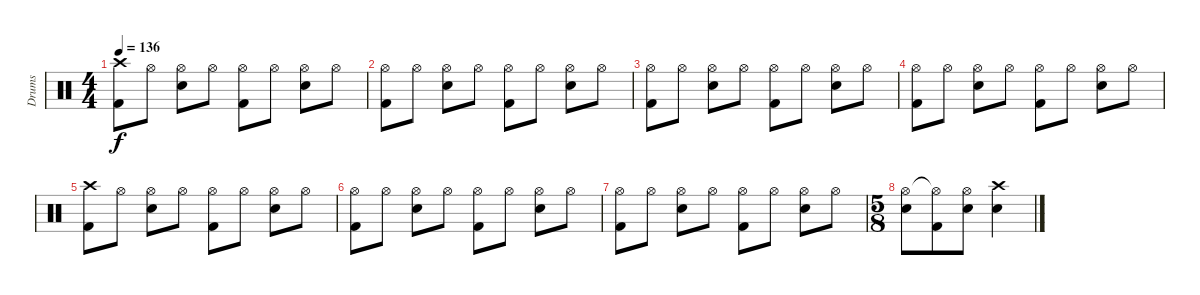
\track ("Drums" "Drums") {instrument percussion}
\staff {score}
\articulation defaults
\ts (4 4)
\tempo 136
\clef neutral
\ks c
("Crash high (hit)" "Kick (hit) 2").8{dy f} "Hi-Hat (open)".8 ("Hi-Hat (open)" "Snare (hit) 2").8 "Hi-Hat (open)".8 ("Hi-Hat (open)" "Kick (hit) 2").8 "Hi-Hat (open)".8 ("Hi-Hat (open)" "Snare (hit) 2").8 "Hi-Hat (open)".8 |
("Hi-Hat (open)" "Kick (hit) 2").8 "Hi-Hat (open)".8 ("Hi-Hat (open)" "Snare (hit) 2").8 "Hi-Hat (open)".8 ("Hi-Hat (open)" "Kick (hit) 2").8 "Hi-Hat (open)".8 ("Hi-Hat (open)" "Snare (hit) 2").8 "Hi-Hat (open)".8 |
("Hi-Hat (open)" "Kick (hit) 2").8 "Hi-Hat (open)".8 ("Hi-Hat (open)" "Snare (hit) 2").8 "Hi-Hat (open)".8 ("Hi-Hat (open)" "Kick (hit) 2").8 "Hi-Hat (open)".8 ("Hi-Hat (open)" "Snare (hit) 2").8 "Hi-Hat (open)".8 |
("Hi-Hat (open)" "Kick (hit) 2").8 "Hi-Hat (open)".8 ("Hi-Hat (open)" "Snare (hit) 2").8 "Hi-Hat (open)".8 ("Hi-Hat (open)" "Kick (hit) 2").8 "Hi-Hat (open)".8 ("Hi-Hat (open)" "Snare (hit) 2").8 "Hi-Hat (open)".8 |
("Crash high (hit)" "Kick (hit) 2").8 "Hi-Hat (open)".8 ("Hi-Hat (open)" "Snare (hit) 2").8 "Hi-Hat (open)".8 ("Hi-Hat (open)" "Kick (hit) 2").8 "Hi-Hat (open)".8 ("Hi-Hat (open)" "Snare (hit) 2").8 "Hi-Hat (open)".8 |
("Hi-Hat (open)" "Kick (hit) 2").8 "Hi-Hat (open)".8 ("Hi-Hat (open)" "Snare (hit) 2").8 "Hi-Hat (open)".8 ("Hi-Hat (open)" "Kick (hit) 2").8 "Hi-Hat (open)".8 ("Hi-Hat (open)" "Snare (hit) 2").8 "Hi-Hat (open)".8 |
("Hi-Hat (open)" "Kick (hit) 2").8 "Hi-Hat (open)".8 ("Hi-Hat (open)" "Snare (hit) 2").8 "Hi-Hat (open)".8 ("Hi-Hat (open)" "Kick (hit) 2").8 "Hi-Hat (open)".8 ("Hi-Hat (open)" "Snare (hit) 2").8 "Hi-Hat (open)".8 |
\ts (5 8)
("Hi-Hat (open)" "Snare (hit) 2").8 ("Hi-Hat (open)"{t} "Kick (hit) 2").8 ("Hi-Hat (open)" "Snare (hit) 2").8 ("Crash high (hit)" "Snare (hit) 2").4
